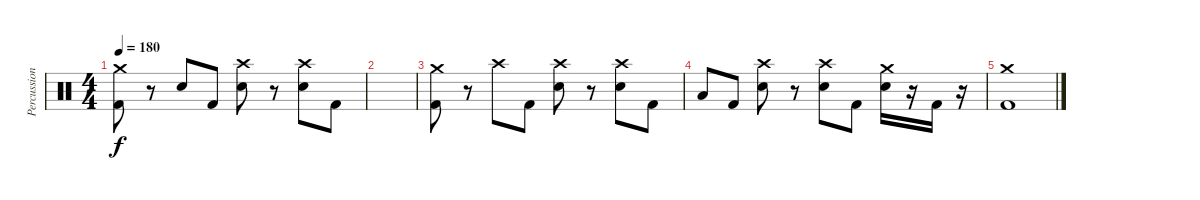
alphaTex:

\track ("Percussion" "Percussion") {instrument percussion}
\staff {score}
\articulation defaults
\ts (4 4)
\tempo 180
\clef neutral
\ks c
("Crash medium (hit)" "Kick (hit) 2").8{dy f} r.8 "Snare (hit) 2".8 "Kick (hit) 2".8 ("Crash high (hit)" "Snare (hit) 2").8 r.8 ("Crash high (hit)" "Snare (hit) 2").8 "Kick (hit) 2".8 |
|
("Crash medium (hit)" "Kick (hit) 2").8 r.8 "Crash high (hit)".8 "Kick (hit) 2".8 ("Crash high (hit)" "Snare (hit) 2").8 r.8 ("Crash high (hit)" "Snare (hit) 2").8 "Kick (hit) 2".8 |
"Low Tom (hit)".8 "Kick (hit) 2".8 ("Crash high (hit)" "Snare (hit) 2").8 r.8 ("Crash high (hit)" "Snare (hit) 2").8 "Kick (hit) 2".8 ("Crash medium (hit)" "Snare (hit) 2").16 r.16 "Kick (hit) 2".16 r.16 |
("Crash medium (hit)" "Kick (hit) 2").1
